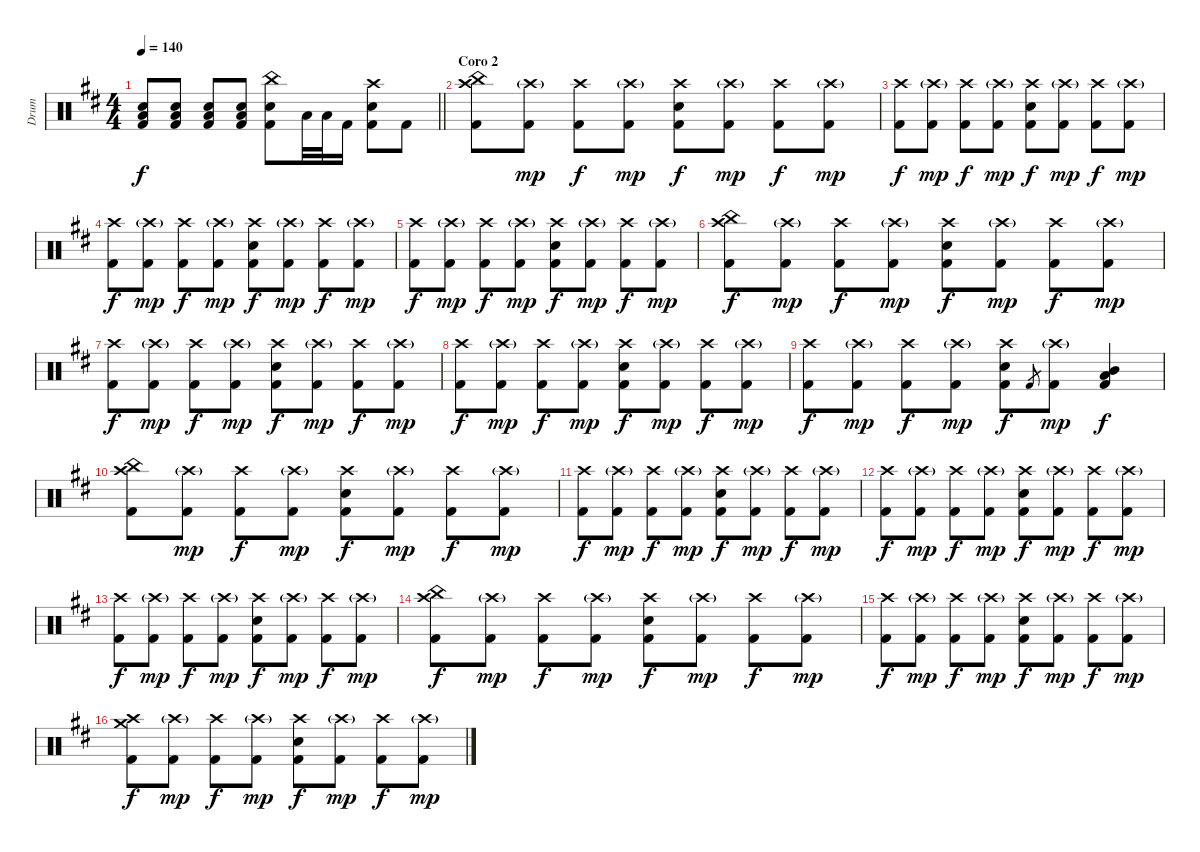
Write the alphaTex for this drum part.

\track ("Drum" "Drum") {instrument percussion}
\staff {score}
\articulation defaults
\ts (4 4)
\tempo 140
\clef neutral
\barLineRight lightlight
\ks bminor
("Low Tom (hit)" "Snare (hit) 2" "Kick (hit) 2").8{dy f} ("Low Tom (hit)" "Snare (hit) 2" "Kick (hit) 2").8 ("Low Tom (hit)" "Snare (hit) 2" "Kick (hit) 2").8 ("Low Tom (hit)" "Snare (hit) 2" "Kick (hit) 2").8 ("China (hit)" "Snare (hit) 2" "Kick (hit) 2").8 "Low Tom (hit)".32 "Low Tom (hit)".32 "Kick (hit) 2".16 ("Crash high (hit)" "Snare (hit) 2" "Kick (hit) 2").8 "Kick (hit) 2".8 |
\section ("" "Coro 2")
("Crash high (hit)" "China (hit)" "Kick (hit) 2").8 ("Crash high (hit)"{g} "Kick (hit) 2").8{dy mp} ("Crash high (hit)" "Kick (hit) 2").8{dy f} ("Crash high (hit)"{g} "Kick (hit) 2").8{dy mp} ("Crash high (hit)" "Snare (hit) 2" "Kick (hit) 2").8{dy f} ("Crash high (hit)"{g} "Kick (hit) 2").8{dy mp} ("Crash high (hit)" "Kick (hit) 2").8{dy f} ("Crash high (hit)"{g} "Kick (hit) 2").8{dy mp} |
("Crash high (hit)" "Kick (hit) 2").8{dy f} ("Crash high (hit)"{g} "Kick (hit) 2").8{dy mp} ("Crash high (hit)" "Kick (hit) 2").8{dy f} ("Crash high (hit)"{g} "Kick (hit) 2").8{dy mp} ("Crash high (hit)" "Snare (hit) 2" "Kick (hit) 2").8{dy f} ("Crash high (hit)"{g} "Kick (hit) 2").8{dy mp} ("Crash high (hit)" "Kick (hit) 2").8{dy f} ("Crash high (hit)"{g} "Kick (hit) 2").8{dy mp} |
("Crash high (hit)" "Kick (hit) 2").8{dy f} ("Crash high (hit)"{g} "Kick (hit) 2").8{dy mp} ("Crash high (hit)" "Kick (hit) 2").8{dy f} ("Crash high (hit)"{g} "Kick (hit) 2").8{dy mp} ("Crash high (hit)" "Snare (hit) 2" "Kick (hit) 2").8{dy f} ("Crash high (hit)"{g} "Kick (hit) 2").8{dy mp} ("Crash high (hit)" "Kick (hit) 2").8{dy f} ("Crash high (hit)"{g} "Kick (hit) 2").8{dy mp} |
("Crash high (hit)" "Kick (hit) 2").8{dy f} ("Crash high (hit)"{g} "Kick (hit) 2").8{dy mp} ("Crash high (hit)" "Kick (hit) 2").8{dy f} ("Crash high (hit)"{g} "Kick (hit) 2").8{dy mp} ("Crash high (hit)" "Snare (hit) 2" "Kick (hit) 2").8{dy f} ("Crash high (hit)"{g} "Kick (hit) 2").8{dy mp} ("Crash high (hit)" "Kick (hit) 2").8{dy f} ("Crash high (hit)"{g} "Kick (hit) 2").8{dy mp} |
("Crash high (hit)" "China (hit)" "Kick (hit) 2").8{dy f} ("Crash high (hit)"{g} "Kick (hit) 2").8{dy mp} ("Crash high (hit)" "Kick (hit) 2").8{dy f} ("Crash high (hit)"{g} "Kick (hit) 2").8{dy mp} ("Crash high (hit)" "Snare (hit) 2" "Kick (hit) 2").8{dy f} ("Crash high (hit)"{g} "Kick (hit) 2").8{dy mp} ("Crash high (hit)" "Kick (hit) 2").8{dy f} ("Crash high (hit)"{g} "Kick (hit) 2").8{dy mp} |
("Crash high (hit)" "Kick (hit) 2").8{dy f} ("Crash high (hit)"{g} "Kick (hit) 2").8{dy mp} ("Crash high (hit)" "Kick (hit) 2").8{dy f} ("Crash high (hit)"{g} "Kick (hit) 2").8{dy mp} ("Crash high (hit)" "Snare (hit) 2" "Kick (hit) 2").8{dy f} ("Crash high (hit)"{g} "Kick (hit) 2").8{dy mp} ("Crash high (hit)" "Kick (hit) 2").8{dy f} ("Crash high (hit)"{g} "Kick (hit) 2").8{dy mp} |
("Crash high (hit)" "Kick (hit) 2").8{dy f} ("Crash high (hit)"{g} "Kick (hit) 2").8{dy mp} ("Crash high (hit)" "Kick (hit) 2").8{dy f} ("Crash high (hit)"{g} "Kick (hit) 2").8{dy mp} ("Crash high (hit)" "Snare (hit) 2" "Kick (hit) 2").8{dy f} ("Crash high (hit)"{g} "Kick (hit) 2").8{dy mp} ("Crash high (hit)" "Kick (hit) 2").8{dy f} ("Crash high (hit)"{g} "Kick (hit) 2").8{dy mp} |
("Crash high (hit)" "Kick (hit) 2").8{dy f} ("Crash high (hit)"{g} "Kick (hit) 2").8{dy mp} ("Crash high (hit)" "Kick (hit) 2").8{dy f} ("Crash high (hit)"{g} "Kick (hit) 2").8{dy mp} ("Crash high (hit)" "Snare (hit) 2" "Kick (hit) 2").8{dy f} "Kick (hit) 2".8{gr} ("Crash high (hit)"{g} "Kick (hit) 2").8{dy mp} ("Mid Tom (hit)" "Low Tom (hit)" "Kick (hit) 2").4{dy f} |
("Crash high (hit)" "China (hit)" "Kick (hit) 2").8 ("Crash high (hit)"{g} "Kick (hit) 2").8{dy mp} ("Crash high (hit)" "Kick (hit) 2").8{dy f} ("Crash high (hit)"{g} "Kick (hit) 2").8{dy mp} ("Crash high (hit)" "Snare (hit) 2" "Kick (hit) 2").8{dy f} ("Crash high (hit)"{g} "Kick (hit) 2").8{dy mp} ("Crash high (hit)" "Kick (hit) 2").8{dy f} ("Crash high (hit)"{g} "Kick (hit) 2").8{dy mp} |
("Crash high (hit)" "Kick (hit) 2").8{dy f} ("Crash high (hit)"{g} "Kick (hit) 2").8{dy mp} ("Crash high (hit)" "Kick (hit) 2").8{dy f} ("Crash high (hit)"{g} "Kick (hit) 2").8{dy mp} ("Crash high (hit)" "Snare (hit) 2" "Kick (hit) 2").8{dy f} ("Crash high (hit)"{g} "Kick (hit) 2").8{dy mp} ("Crash high (hit)" "Kick (hit) 2").8{dy f} ("Crash high (hit)"{g} "Kick (hit) 2").8{dy mp} |
("Crash high (hit)" "Kick (hit) 2").8{dy f} ("Crash high (hit)"{g} "Kick (hit) 2").8{dy mp} ("Crash high (hit)" "Kick (hit) 2").8{dy f} ("Crash high (hit)"{g} "Kick (hit) 2").8{dy mp} ("Crash high (hit)" "Snare (hit) 2" "Kick (hit) 2").8{dy f} ("Crash high (hit)"{g} "Kick (hit) 2").8{dy mp} ("Crash high (hit)" "Kick (hit) 2").8{dy f} ("Crash high (hit)"{g} "Kick (hit) 2").8{dy mp} |
("Crash high (hit)" "Kick (hit) 2").8{dy f} ("Crash high (hit)"{g} "Kick (hit) 2").8{dy mp} ("Crash high (hit)" "Kick (hit) 2").8{dy f} ("Crash high (hit)"{g} "Kick (hit) 2").8{dy mp} ("Crash high (hit)" "Snare (hit) 2" "Kick (hit) 2").8{dy f} ("Crash high (hit)"{g} "Kick (hit) 2").8{dy mp} ("Crash high (hit)" "Kick (hit) 2").8{dy f} ("Crash high (hit)"{g} "Kick (hit) 2").8{dy mp} |
("Crash high (hit)" "China (hit)" "Kick (hit) 2").8{dy f} ("Crash high (hit)"{g} "Kick (hit) 2").8{dy mp} ("Crash high (hit)" "Kick (hit) 2").8{dy f} ("Crash high (hit)"{g} "Kick (hit) 2").8{dy mp} ("Crash high (hit)" "Snare (hit) 2" "Kick (hit) 2").8{dy f} ("Crash high (hit)"{g} "Kick (hit) 2").8{dy mp} ("Crash high (hit)" "Kick (hit) 2").8{dy f} ("Crash high (hit)"{g} "Kick (hit) 2").8{dy mp} |
("Crash high (hit)" "Kick (hit) 2").8{dy f} ("Crash high (hit)"{g} "Kick (hit) 2").8{dy mp} ("Crash high (hit)" "Kick (hit) 2").8{dy f} ("Crash high (hit)"{g} "Kick (hit) 2").8{dy mp} ("Crash high (hit)" "Snare (hit) 2" "Kick (hit) 2").8{dy f} ("Crash high (hit)"{g} "Kick (hit) 2").8{dy mp} ("Crash high (hit)" "Kick (hit) 2").8{dy f} ("Crash high (hit)"{g} "Kick (hit) 2").8{dy mp} |
("Crash high (hit)" "Crash medium (hit)" "Kick (hit) 2").8{dy f} ("Crash high (hit)"{g} "Kick (hit) 2").8{dy mp} ("Crash high (hit)" "Kick (hit) 2").8{dy f} ("Crash high (hit)"{g} "Kick (hit) 2").8{dy mp} ("Crash high (hit)" "Snare (hit) 2" "Kick (hit) 2").8{dy f} ("Crash high (hit)"{g} "Kick (hit) 2").8{dy mp} ("Crash high (hit)" "Kick (hit) 2").8{dy f} ("Crash high (hit)"{g} "Kick (hit) 2").8{dy mp}
